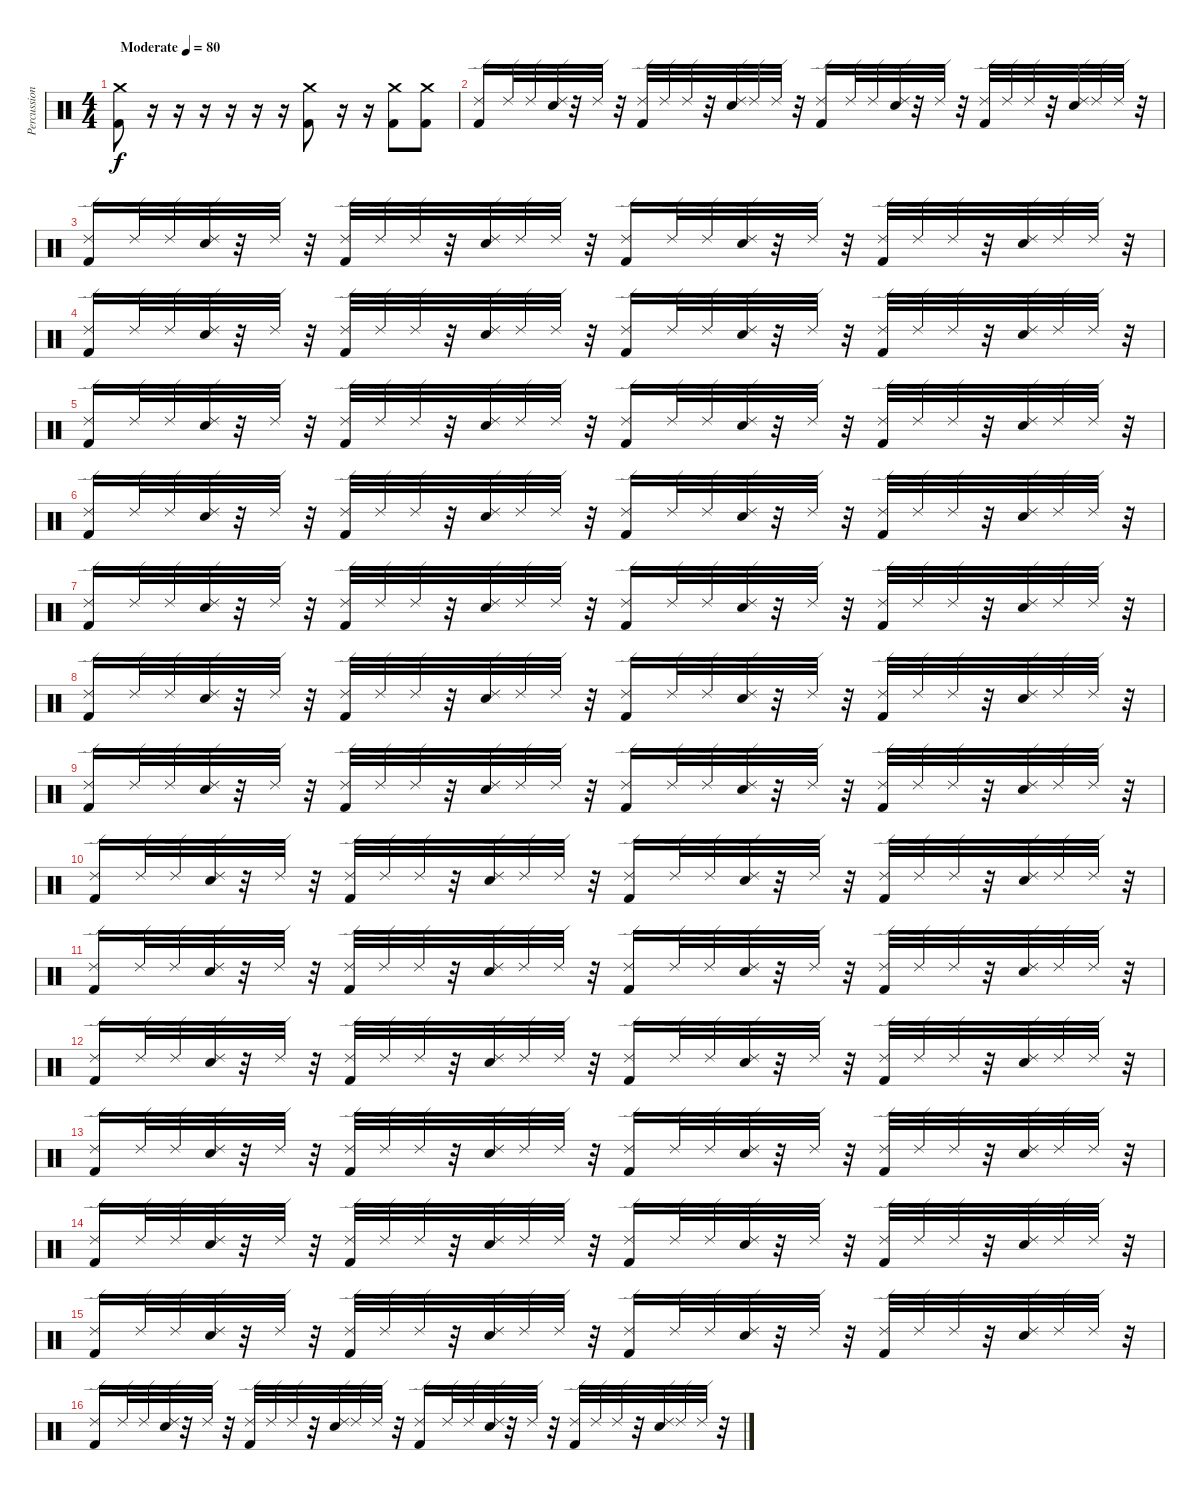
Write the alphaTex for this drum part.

\track ("Percussion" "Percussion") {instrument percussion}
\staff {score}
\articulation defaults
\ts (4 4)
\tempo (80 "Moderate")
\clef neutral
\ks c
("Crash medium (hit)" "Kick (hit) 2").8{dy f} r.16 r.16 r.16 r.16 r.16 r.16 ("Crash medium (hit)" "Kick (hit) 2").8 r.16 r.16 ("Crash medium (hit)" "Kick (hit) 2").8 ("Crash medium (hit)" "Kick (hit) 2").8 |
("Ride (edge) 2" "Kick (hit) 2").16 "Ride (edge) 2".32 "Ride (edge) 2".32 ("Ride (edge) 2" "Snare (hit) 2").32 r.32 "Ride (edge) 2".32 r.32 ("Ride (edge) 2" "Kick (hit) 2").32 "Ride (edge) 2".32 "Ride (edge) 2".32 r.32 ("Ride (edge) 2" "Snare (hit) 2").32 "Ride (edge) 2".32 "Ride (edge) 2".32 r.32 ("Ride (edge) 2" "Kick (hit) 2").16 "Ride (edge) 2".32 "Ride (edge) 2".32 ("Ride (edge) 2" "Snare (hit) 2").32 r.32 "Ride (edge) 2".32 r.32 ("Ride (edge) 2" "Kick (hit) 2").32 "Ride (edge) 2".32 "Ride (edge) 2".32 r.32 ("Ride (edge) 2" "Snare (hit) 2").32 "Ride (edge) 2".32 "Ride (edge) 2".32 r.32 |
("Ride (edge) 2" "Kick (hit) 2").16 "Ride (edge) 2".32 "Ride (edge) 2".32 ("Ride (edge) 2" "Snare (hit) 2").32 r.32 "Ride (edge) 2".32 r.32 ("Ride (edge) 2" "Kick (hit) 2").32 "Ride (edge) 2".32 "Ride (edge) 2".32 r.32 ("Ride (edge) 2" "Snare (hit) 2").32 "Ride (edge) 2".32 "Ride (edge) 2".32 r.32 ("Ride (edge) 2" "Kick (hit) 2").16 "Ride (edge) 2".32 "Ride (edge) 2".32 ("Ride (edge) 2" "Snare (hit) 2").32 r.32 "Ride (edge) 2".32 r.32 ("Ride (edge) 2" "Kick (hit) 2").32 "Ride (edge) 2".32 "Ride (edge) 2".32 r.32 ("Ride (edge) 2" "Snare (hit) 2").32 "Ride (edge) 2".32 "Ride (edge) 2".32 r.32 |
("Ride (edge) 2" "Kick (hit) 2").16 "Ride (edge) 2".32 "Ride (edge) 2".32 ("Ride (edge) 2" "Snare (hit) 2").32 r.32 "Ride (edge) 2".32 r.32 ("Ride (edge) 2" "Kick (hit) 2").32 "Ride (edge) 2".32 "Ride (edge) 2".32 r.32 ("Ride (edge) 2" "Snare (hit) 2").32 "Ride (edge) 2".32 "Ride (edge) 2".32 r.32 ("Ride (edge) 2" "Kick (hit) 2").16 "Ride (edge) 2".32 "Ride (edge) 2".32 ("Ride (edge) 2" "Snare (hit) 2").32 r.32 "Ride (edge) 2".32 r.32 ("Ride (edge) 2" "Kick (hit) 2").32 "Ride (edge) 2".32 "Ride (edge) 2".32 r.32 ("Ride (edge) 2" "Snare (hit) 2").32 "Ride (edge) 2".32 "Ride (edge) 2".32 r.32 |
("Ride (edge) 2" "Kick (hit) 2").16 "Ride (edge) 2".32 "Ride (edge) 2".32 ("Ride (edge) 2" "Snare (hit) 2").32 r.32 "Ride (edge) 2".32 r.32 ("Ride (edge) 2" "Kick (hit) 2").32 "Ride (edge) 2".32 "Ride (edge) 2".32 r.32 ("Ride (edge) 2" "Snare (hit) 2").32 "Ride (edge) 2".32 "Ride (edge) 2".32 r.32 ("Ride (edge) 2" "Kick (hit) 2").16 "Ride (edge) 2".32 "Ride (edge) 2".32 ("Ride (edge) 2" "Snare (hit) 2").32 r.32 "Ride (edge) 2".32 r.32 ("Ride (edge) 2" "Kick (hit) 2").32 "Ride (edge) 2".32 "Ride (edge) 2".32 r.32 ("Ride (edge) 2" "Snare (hit) 2").32 "Ride (edge) 2".32 "Ride (edge) 2".32 r.32 |
("Ride (edge) 2" "Kick (hit) 2").16 "Ride (edge) 2".32 "Ride (edge) 2".32 ("Ride (edge) 2" "Snare (hit) 2").32 r.32 "Ride (edge) 2".32 r.32 ("Ride (edge) 2" "Kick (hit) 2").32 "Ride (edge) 2".32 "Ride (edge) 2".32 r.32 ("Ride (edge) 2" "Snare (hit) 2").32 "Ride (edge) 2".32 "Ride (edge) 2".32 r.32 ("Ride (edge) 2" "Kick (hit) 2").16 "Ride (edge) 2".32 "Ride (edge) 2".32 ("Ride (edge) 2" "Snare (hit) 2").32 r.32 "Ride (edge) 2".32 r.32 ("Ride (edge) 2" "Kick (hit) 2").32 "Ride (edge) 2".32 "Ride (edge) 2".32 r.32 ("Ride (edge) 2" "Snare (hit) 2").32 "Ride (edge) 2".32 "Ride (edge) 2".32 r.32 |
("Ride (edge) 2" "Kick (hit) 2").16 "Ride (edge) 2".32 "Ride (edge) 2".32 ("Ride (edge) 2" "Snare (hit) 2").32 r.32 "Ride (edge) 2".32 r.32 ("Ride (edge) 2" "Kick (hit) 2").32 "Ride (edge) 2".32 "Ride (edge) 2".32 r.32 ("Ride (edge) 2" "Snare (hit) 2").32 "Ride (edge) 2".32 "Ride (edge) 2".32 r.32 ("Ride (edge) 2" "Kick (hit) 2").16 "Ride (edge) 2".32 "Ride (edge) 2".32 ("Ride (edge) 2" "Snare (hit) 2").32 r.32 "Ride (edge) 2".32 r.32 ("Ride (edge) 2" "Kick (hit) 2").32 "Ride (edge) 2".32 "Ride (edge) 2".32 r.32 ("Ride (edge) 2" "Snare (hit) 2").32 "Ride (edge) 2".32 "Ride (edge) 2".32 r.32 |
("Ride (edge) 2" "Kick (hit) 2").16 "Ride (edge) 2".32 "Ride (edge) 2".32 ("Ride (edge) 2" "Snare (hit) 2").32 r.32 "Ride (edge) 2".32 r.32 ("Ride (edge) 2" "Kick (hit) 2").32 "Ride (edge) 2".32 "Ride (edge) 2".32 r.32 ("Ride (edge) 2" "Snare (hit) 2").32 "Ride (edge) 2".32 "Ride (edge) 2".32 r.32 ("Ride (edge) 2" "Kick (hit) 2").16 "Ride (edge) 2".32 "Ride (edge) 2".32 ("Ride (edge) 2" "Snare (hit) 2").32 r.32 "Ride (edge) 2".32 r.32 ("Ride (edge) 2" "Kick (hit) 2").32 "Ride (edge) 2".32 "Ride (edge) 2".32 r.32 ("Ride (edge) 2" "Snare (hit) 2").32 "Ride (edge) 2".32 "Ride (edge) 2".32 r.32 |
("Ride (edge) 2" "Kick (hit) 2").16 "Ride (edge) 2".32 "Ride (edge) 2".32 ("Ride (edge) 2" "Snare (hit) 2").32 r.32 "Ride (edge) 2".32 r.32 ("Ride (edge) 2" "Kick (hit) 2").32 "Ride (edge) 2".32 "Ride (edge) 2".32 r.32 ("Ride (edge) 2" "Snare (hit) 2").32 "Ride (edge) 2".32 "Ride (edge) 2".32 r.32 ("Ride (edge) 2" "Kick (hit) 2").16 "Ride (edge) 2".32 "Ride (edge) 2".32 ("Ride (edge) 2" "Snare (hit) 2").32 r.32 "Ride (edge) 2".32 r.32 ("Ride (edge) 2" "Kick (hit) 2").32 "Ride (edge) 2".32 "Ride (edge) 2".32 r.32 ("Ride (edge) 2" "Snare (hit) 2").32 "Ride (edge) 2".32 "Ride (edge) 2".32 r.32 |
("Ride (edge) 2" "Kick (hit) 2").16 "Ride (edge) 2".32 "Ride (edge) 2".32 ("Ride (edge) 2" "Snare (hit) 2").32 r.32 "Ride (edge) 2".32 r.32 ("Ride (edge) 2" "Kick (hit) 2").32 "Ride (edge) 2".32 "Ride (edge) 2".32 r.32 ("Ride (edge) 2" "Snare (hit) 2").32 "Ride (edge) 2".32 "Ride (edge) 2".32 r.32 ("Ride (edge) 2" "Kick (hit) 2").16 "Ride (edge) 2".32 "Ride (edge) 2".32 ("Ride (edge) 2" "Snare (hit) 2").32 r.32 "Ride (edge) 2".32 r.32 ("Ride (edge) 2" "Kick (hit) 2").32 "Ride (edge) 2".32 "Ride (edge) 2".32 r.32 ("Ride (edge) 2" "Snare (hit) 2").32 "Ride (edge) 2".32 "Ride (edge) 2".32 r.32 |
("Ride (edge) 2" "Kick (hit) 2").16 "Ride (edge) 2".32 "Ride (edge) 2".32 ("Ride (edge) 2" "Snare (hit) 2").32 r.32 "Ride (edge) 2".32 r.32 ("Ride (edge) 2" "Kick (hit) 2").32 "Ride (edge) 2".32 "Ride (edge) 2".32 r.32 ("Ride (edge) 2" "Snare (hit) 2").32 "Ride (edge) 2".32 "Ride (edge) 2".32 r.32 ("Ride (edge) 2" "Kick (hit) 2").16 "Ride (edge) 2".32 "Ride (edge) 2".32 ("Ride (edge) 2" "Snare (hit) 2").32 r.32 "Ride (edge) 2".32 r.32 ("Ride (edge) 2" "Kick (hit) 2").32 "Ride (edge) 2".32 "Ride (edge) 2".32 r.32 ("Ride (edge) 2" "Snare (hit) 2").32 "Ride (edge) 2".32 "Ride (edge) 2".32 r.32 |
("Ride (edge) 2" "Kick (hit) 2").16 "Ride (edge) 2".32 "Ride (edge) 2".32 ("Ride (edge) 2" "Snare (hit) 2").32 r.32 "Ride (edge) 2".32 r.32 ("Ride (edge) 2" "Kick (hit) 2").32 "Ride (edge) 2".32 "Ride (edge) 2".32 r.32 ("Ride (edge) 2" "Snare (hit) 2").32 "Ride (edge) 2".32 "Ride (edge) 2".32 r.32 ("Ride (edge) 2" "Kick (hit) 2").16 "Ride (edge) 2".32 "Ride (edge) 2".32 ("Ride (edge) 2" "Snare (hit) 2").32 r.32 "Ride (edge) 2".32 r.32 ("Ride (edge) 2" "Kick (hit) 2").32 "Ride (edge) 2".32 "Ride (edge) 2".32 r.32 ("Ride (edge) 2" "Snare (hit) 2").32 "Ride (edge) 2".32 "Ride (edge) 2".32 r.32 |
("Ride (edge) 2" "Kick (hit) 2").16 "Ride (edge) 2".32 "Ride (edge) 2".32 ("Ride (edge) 2" "Snare (hit) 2").32 r.32 "Ride (edge) 2".32 r.32 ("Ride (edge) 2" "Kick (hit) 2").32 "Ride (edge) 2".32 "Ride (edge) 2".32 r.32 ("Ride (edge) 2" "Snare (hit) 2").32 "Ride (edge) 2".32 "Ride (edge) 2".32 r.32 ("Ride (edge) 2" "Kick (hit) 2").16 "Ride (edge) 2".32 "Ride (edge) 2".32 ("Ride (edge) 2" "Snare (hit) 2").32 r.32 "Ride (edge) 2".32 r.32 ("Ride (edge) 2" "Kick (hit) 2").32 "Ride (edge) 2".32 "Ride (edge) 2".32 r.32 ("Ride (edge) 2" "Snare (hit) 2").32 "Ride (edge) 2".32 "Ride (edge) 2".32 r.32 |
("Ride (edge) 2" "Kick (hit) 2").16 "Ride (edge) 2".32 "Ride (edge) 2".32 ("Ride (edge) 2" "Snare (hit) 2").32 r.32 "Ride (edge) 2".32 r.32 ("Ride (edge) 2" "Kick (hit) 2").32 "Ride (edge) 2".32 "Ride (edge) 2".32 r.32 ("Ride (edge) 2" "Snare (hit) 2").32 "Ride (edge) 2".32 "Ride (edge) 2".32 r.32 ("Ride (edge) 2" "Kick (hit) 2").16 "Ride (edge) 2".32 "Ride (edge) 2".32 ("Ride (edge) 2" "Snare (hit) 2").32 r.32 "Ride (edge) 2".32 r.32 ("Ride (edge) 2" "Kick (hit) 2").32 "Ride (edge) 2".32 "Ride (edge) 2".32 r.32 ("Ride (edge) 2" "Snare (hit) 2").32 "Ride (edge) 2".32 "Ride (edge) 2".32 r.32 |
("Ride (edge) 2" "Kick (hit) 2").16 "Ride (edge) 2".32 "Ride (edge) 2".32 ("Ride (edge) 2" "Snare (hit) 2").32 r.32 "Ride (edge) 2".32 r.32 ("Ride (edge) 2" "Kick (hit) 2").32 "Ride (edge) 2".32 "Ride (edge) 2".32 r.32 ("Ride (edge) 2" "Snare (hit) 2").32 "Ride (edge) 2".32 "Ride (edge) 2".32 r.32 ("Ride (edge) 2" "Kick (hit) 2").16 "Ride (edge) 2".32 "Ride (edge) 2".32 ("Ride (edge) 2" "Snare (hit) 2").32 r.32 "Ride (edge) 2".32 r.32 ("Ride (edge) 2" "Kick (hit) 2").32 "Ride (edge) 2".32 "Ride (edge) 2".32 r.32 ("Ride (edge) 2" "Snare (hit) 2").32 "Ride (edge) 2".32 "Ride (edge) 2".32 r.32 |
("Ride (edge) 2" "Kick (hit) 2").16 "Ride (edge) 2".32 "Ride (edge) 2".32 ("Ride (edge) 2" "Snare (hit) 2").32 r.32 "Ride (edge) 2".32 r.32 ("Ride (edge) 2" "Kick (hit) 2").32 "Ride (edge) 2".32 "Ride (edge) 2".32 r.32 ("Ride (edge) 2" "Snare (hit) 2").32 "Ride (edge) 2".32 "Ride (edge) 2".32 r.32 ("Ride (edge) 2" "Kick (hit) 2").16 "Ride (edge) 2".32 "Ride (edge) 2".32 ("Ride (edge) 2" "Snare (hit) 2").32 r.32 "Ride (edge) 2".32 r.32 ("Ride (edge) 2" "Kick (hit) 2").32 "Ride (edge) 2".32 "Ride (edge) 2".32 r.32 ("Ride (edge) 2" "Snare (hit) 2").32 "Ride (edge) 2".32 "Ride (edge) 2".32 r.32
